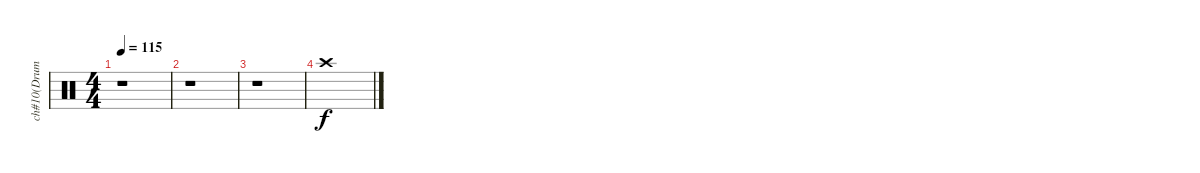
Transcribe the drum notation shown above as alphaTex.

\track ("ch#10(Drums)" "ch#10(Drum") {instrument percussion}
\staff {score}
\articulation defaults
\ts (4 4)
\tempo 115
\clef neutral
\ks c
r.1{dy f} |
r.1 |
r.1 |
"Crash high (hit)".1
